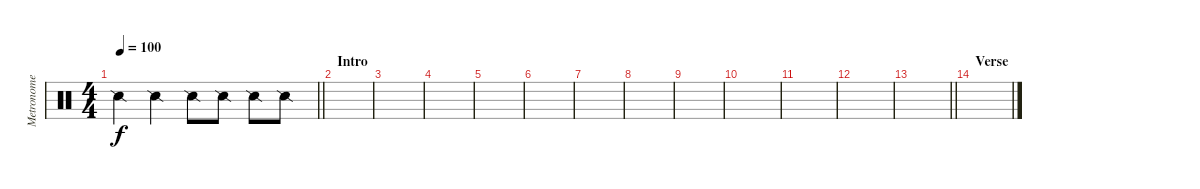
\track ("Metronome" "Metronome") {instrument percussion}
\staff {score}
\articulation defaults
\ts (4 4)
\tempo 100
\clef neutral
\barLineRight lightlight
\ks c "Snare (side stick) 2".4{dy f} "Snare (side stick) 2".4 "Snare (side stick) 2".8 "Snare (side stick) 2".8 "Snare (side stick) 2".8 "Snare (side stick) 2".8
|
\section ("" "Intro")
|
|
|
|
|
|
|
|
|
|
|
\barLineRight lightlight
|
\section ("" "Verse")
